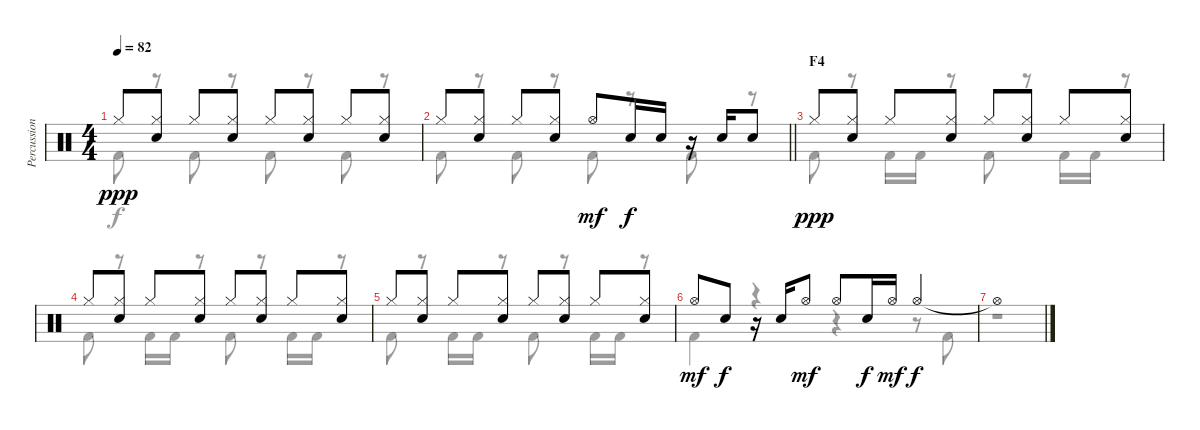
\track ("Percussioni" "Percussion") {instrument percussion}
\staff {score}
\articulation defaults
\voice
\ts (4 4)
\tempo 82
\clef neutral
\ks c "Hi-Hat (closed)".8{dy ppp}
("Hi-Hat (closed)" "Snare (hit) 2").8 "Hi-Hat (closed)".8 ("Hi-Hat (closed)" "Snare (hit) 2").8 "Hi-Hat (closed)".8 ("Hi-Hat (closed)" "Snare (hit) 2").8 "Hi-Hat (closed)".8 ("Hi-Hat (closed)" "Snare (hit) 2").8 |
\barLineRight lightlight "Hi-Hat (closed)".8
("Hi-Hat (closed)" "Snare (hit) 2").8 "Hi-Hat (closed)".8 ("Hi-Hat (closed)" "Snare (hit) 2").8 "Hi-Hat (open)".8{dy mf} "Snare (hit) 2".16{dy f} "Snare (hit) 2".16 r.16 "Snare (hit) 2".16 "Snare (hit) 2".8 |
\section ("" "F4")
"Hi-Hat (closed)".8{dy ppp} ("Hi-Hat (closed)" "Snare (hit) 2").8 "Hi-Hat (closed)".8 ("Hi-Hat (closed)" "Snare (hit) 2").8 "Hi-Hat (closed)".8 ("Hi-Hat (closed)" "Snare (hit) 2").8 "Hi-Hat (closed)".8 ("Hi-Hat (closed)" "Snare (hit) 2").8 |
"Hi-Hat (closed)".8 ("Hi-Hat (closed)" "Snare (hit) 2").8 "Hi-Hat (closed)".8 ("Hi-Hat (closed)" "Snare (hit) 2").8 "Hi-Hat (closed)".8 ("Hi-Hat (closed)" "Snare (hit) 2").8 "Hi-Hat (closed)".8 ("Hi-Hat (closed)" "Snare (hit) 2").8 |
"Hi-Hat (closed)".8 ("Hi-Hat (closed)" "Snare (hit) 2").8 "Hi-Hat (closed)".8 ("Hi-Hat (closed)" "Snare (hit) 2").8 "Hi-Hat (closed)".8 ("Hi-Hat (closed)" "Snare (hit) 2").8 "Hi-Hat (closed)".8 ("Hi-Hat (closed)" "Snare (hit) 2").8 |
"Hi-Hat (open)".8{dy mf} "Snare (hit) 2".8{dy f} r.16 "Snare (hit) 2".16 "Hi-Hat (open)".8{dy mf} "Hi-Hat (open)".8 "Snare (hit) 2".16{dy f} "Hi-Hat (open)".16{dy mf} "Hi-Hat (open)".4{dy f} |
"Hi-Hat (open)"{t}.1
\voice
\clef neutral
\ottava regular
\simile none
\ks c "Kick (hit) 2".8{dy f}
r.8 "Kick (hit) 2".8 r.8 "Kick (hit) 2".8 r.8 "Kick (hit) 2".8 r.8 |
\barLineRight lightlight "Kick (hit) 2".8
r.8 "Kick (hit) 2".8 r.8 "Kick (hit) 2".8 r.8 "Kick (hit) 2".8 r.8 |
"Kick (hit) 2".8 r.8 "Kick (hit) 2".16 "Kick (hit) 2".16 r.8 "Kick (hit) 2".8 r.8 "Kick (hit) 2".16 "Kick (hit) 2".16 r.8 |
"Kick (hit) 2".8 r.8 "Kick (hit) 2".16 "Kick (hit) 2".16 r.8 "Kick (hit) 2".8 r.8 "Kick (hit) 2".16 "Kick (hit) 2".16 r.8 |
"Kick (hit) 2".8 r.8 "Kick (hit) 2".16 "Kick (hit) 2".16 r.8 "Kick (hit) 2".8 r.8 "Kick (hit) 2".16 "Kick (hit) 2".16 r.8 |
"Kick (hit) 2".4 r.4 r.4 r.8 "Kick (hit) 2".8 |
r.1
